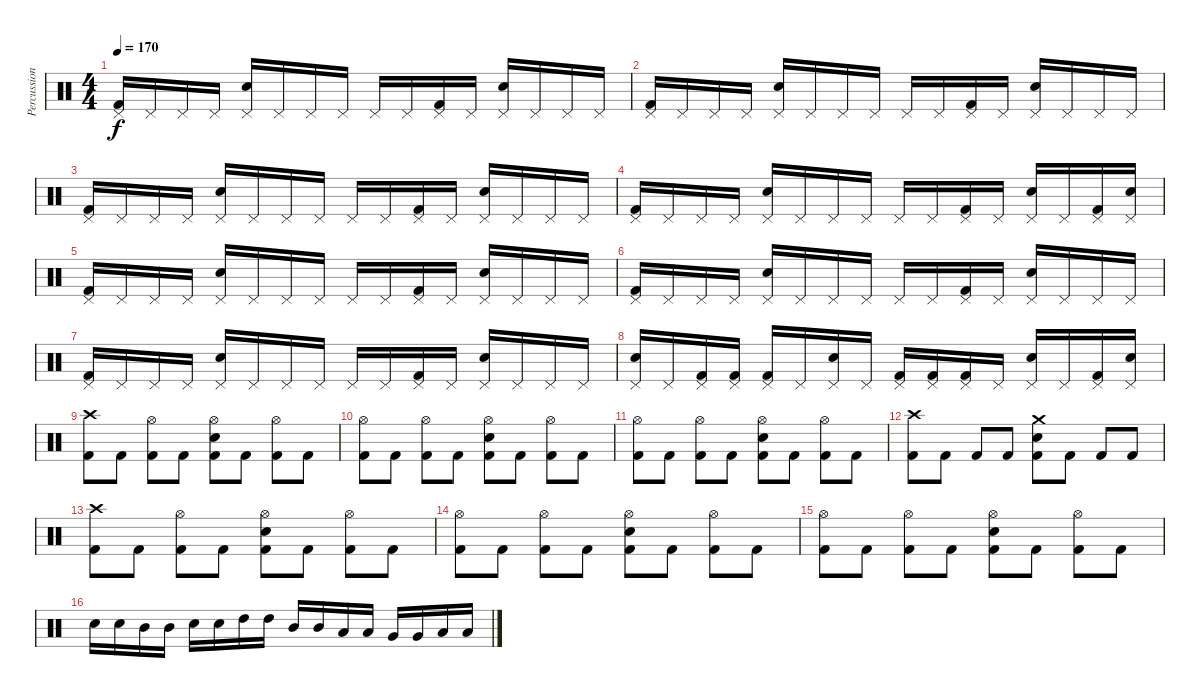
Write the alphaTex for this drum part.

\track ("Percussion" "Percussion") {instrument percussion}
\staff {score}
\articulation defaults
\ts (4 4)
\tempo 170
\clef neutral
\ks c
("Pedal Hi-Hat (hit)" "Kick (hit) 2").16{dy f} "Pedal Hi-Hat (hit)".16 "Pedal Hi-Hat (hit)".16 "Pedal Hi-Hat (hit)".16 ("Pedal Hi-Hat (hit)" "Snare (hit) 2").16 "Pedal Hi-Hat (hit)".16 "Pedal Hi-Hat (hit)".16 "Pedal Hi-Hat (hit)".16 "Pedal Hi-Hat (hit)".16 "Pedal Hi-Hat (hit)".16 ("Pedal Hi-Hat (hit)" "Kick (hit) 2").16 "Pedal Hi-Hat (hit)".16 ("Pedal Hi-Hat (hit)" "Snare (hit) 2").16 "Pedal Hi-Hat (hit)".16 "Pedal Hi-Hat (hit)".16 "Pedal Hi-Hat (hit)".16 |
("Pedal Hi-Hat (hit)" "Kick (hit) 2").16 "Pedal Hi-Hat (hit)".16 "Pedal Hi-Hat (hit)".16 "Pedal Hi-Hat (hit)".16 ("Pedal Hi-Hat (hit)" "Snare (hit) 2").16 "Pedal Hi-Hat (hit)".16 "Pedal Hi-Hat (hit)".16 "Pedal Hi-Hat (hit)".16 "Pedal Hi-Hat (hit)".16 "Pedal Hi-Hat (hit)".16 ("Pedal Hi-Hat (hit)" "Kick (hit) 2").16 "Pedal Hi-Hat (hit)".16 ("Pedal Hi-Hat (hit)" "Snare (hit) 2").16 "Pedal Hi-Hat (hit)".16 "Pedal Hi-Hat (hit)".16 "Pedal Hi-Hat (hit)".16 |
("Pedal Hi-Hat (hit)" "Kick (hit) 2").16 "Pedal Hi-Hat (hit)".16 "Pedal Hi-Hat (hit)".16 "Pedal Hi-Hat (hit)".16 ("Pedal Hi-Hat (hit)" "Snare (hit) 2").16 "Pedal Hi-Hat (hit)".16 "Pedal Hi-Hat (hit)".16 "Pedal Hi-Hat (hit)".16 "Pedal Hi-Hat (hit)".16 "Pedal Hi-Hat (hit)".16 ("Pedal Hi-Hat (hit)" "Kick (hit) 2").16 "Pedal Hi-Hat (hit)".16 ("Pedal Hi-Hat (hit)" "Snare (hit) 2").16 "Pedal Hi-Hat (hit)".16 "Pedal Hi-Hat (hit)".16 "Pedal Hi-Hat (hit)".16 |
("Pedal Hi-Hat (hit)" "Kick (hit) 2").16 "Pedal Hi-Hat (hit)".16 "Pedal Hi-Hat (hit)".16 "Pedal Hi-Hat (hit)".16 ("Pedal Hi-Hat (hit)" "Snare (hit) 2").16 "Pedal Hi-Hat (hit)".16 "Pedal Hi-Hat (hit)".16 "Pedal Hi-Hat (hit)".16 "Pedal Hi-Hat (hit)".16 "Pedal Hi-Hat (hit)".16 ("Pedal Hi-Hat (hit)" "Kick (hit) 2").16 "Pedal Hi-Hat (hit)".16 ("Pedal Hi-Hat (hit)" "Snare (hit) 2").16 "Pedal Hi-Hat (hit)".16 ("Pedal Hi-Hat (hit)" "Kick (hit) 2").16 ("Pedal Hi-Hat (hit)" "Snare (hit) 2").16 |
("Pedal Hi-Hat (hit)" "Kick (hit) 2").16 "Pedal Hi-Hat (hit)".16 "Pedal Hi-Hat (hit)".16 "Pedal Hi-Hat (hit)".16 ("Pedal Hi-Hat (hit)" "Snare (hit) 2").16 "Pedal Hi-Hat (hit)".16 "Pedal Hi-Hat (hit)".16 "Pedal Hi-Hat (hit)".16 "Pedal Hi-Hat (hit)".16 "Pedal Hi-Hat (hit)".16 ("Pedal Hi-Hat (hit)" "Kick (hit) 2").16 "Pedal Hi-Hat (hit)".16 ("Pedal Hi-Hat (hit)" "Snare (hit) 2").16 "Pedal Hi-Hat (hit)".16 "Pedal Hi-Hat (hit)".16 "Pedal Hi-Hat (hit)".16 |
("Pedal Hi-Hat (hit)" "Kick (hit) 2").16 "Pedal Hi-Hat (hit)".16 "Pedal Hi-Hat (hit)".16 "Pedal Hi-Hat (hit)".16 ("Pedal Hi-Hat (hit)" "Snare (hit) 2").16 "Pedal Hi-Hat (hit)".16 "Pedal Hi-Hat (hit)".16 "Pedal Hi-Hat (hit)".16 "Pedal Hi-Hat (hit)".16 "Pedal Hi-Hat (hit)".16 ("Pedal Hi-Hat (hit)" "Kick (hit) 2").16 "Pedal Hi-Hat (hit)".16 ("Pedal Hi-Hat (hit)" "Snare (hit) 2").16 "Pedal Hi-Hat (hit)".16 "Pedal Hi-Hat (hit)".16 "Pedal Hi-Hat (hit)".16 |
("Pedal Hi-Hat (hit)" "Kick (hit) 2").16 "Pedal Hi-Hat (hit)".16 "Pedal Hi-Hat (hit)".16 "Pedal Hi-Hat (hit)".16 ("Pedal Hi-Hat (hit)" "Snare (hit) 2").16 "Pedal Hi-Hat (hit)".16 "Pedal Hi-Hat (hit)".16 "Pedal Hi-Hat (hit)".16 "Pedal Hi-Hat (hit)".16 "Pedal Hi-Hat (hit)".16 ("Pedal Hi-Hat (hit)" "Kick (hit) 2").16 "Pedal Hi-Hat (hit)".16 ("Pedal Hi-Hat (hit)" "Snare (hit) 2").16 "Pedal Hi-Hat (hit)".16 "Pedal Hi-Hat (hit)".16 "Pedal Hi-Hat (hit)".16 |
("Pedal Hi-Hat (hit)" "Snare (hit) 2").16 "Pedal Hi-Hat (hit)".16 ("Pedal Hi-Hat (hit)" "Kick (hit) 2").16 ("Pedal Hi-Hat (hit)" "Kick (hit) 2").16 ("Pedal Hi-Hat (hit)" "Kick (hit) 2").16 "Pedal Hi-Hat (hit)".16 ("Pedal Hi-Hat (hit)" "Snare (hit) 2").16 "Pedal Hi-Hat (hit)".16 ("Pedal Hi-Hat (hit)" "Kick (hit) 2").16 ("Pedal Hi-Hat (hit)" "Kick (hit) 2").16 ("Pedal Hi-Hat (hit)" "Kick (hit) 2").16 "Pedal Hi-Hat (hit)".16 ("Pedal Hi-Hat (hit)" "Snare (hit) 2").16 "Pedal Hi-Hat (hit)".16 ("Pedal Hi-Hat (hit)" "Kick (hit) 2").16 ("Pedal Hi-Hat (hit)" "Snare (hit) 2").16 |
("Crash high (hit)" "Kick (hit) 2").8 "Kick (hit) 2".8 ("Hi-Hat (open)" "Kick (hit) 2").8 "Kick (hit) 2".8 ("Hi-Hat (open)" "Snare (hit) 2" "Kick (hit) 2").8 "Kick (hit) 2".8 ("Hi-Hat (open)" "Kick (hit) 2").8 "Kick (hit) 2".8 |
("Hi-Hat (open)" "Kick (hit) 2").8 "Kick (hit) 2".8 ("Hi-Hat (open)" "Kick (hit) 2").8 "Kick (hit) 2".8 ("Hi-Hat (open)" "Snare (hit) 2" "Kick (hit) 2").8 "Kick (hit) 2".8 ("Hi-Hat (open)" "Kick (hit) 2").8 "Kick (hit) 2".8 |
("Hi-Hat (open)" "Kick (hit) 2").8 "Kick (hit) 2".8 ("Hi-Hat (open)" "Kick (hit) 2").8 "Kick (hit) 2".8 ("Hi-Hat (open)" "Snare (hit) 2" "Kick (hit) 2").8 "Kick (hit) 2".8 ("Hi-Hat (open)" "Kick (hit) 2").8 "Kick (hit) 2".8 |
("Crash high (hit)" "Kick (hit) 2").8 "Kick (hit) 2".8 "Kick (hit) 2".8 "Kick (hit) 2".8 ("Crash medium (hit)" "Snare (hit) 2" "Kick (hit) 2").8 "Kick (hit) 2".8 "Kick (hit) 2".8 "Kick (hit) 2".8 |
("Crash high (hit)" "Kick (hit) 2").8 "Kick (hit) 2".8 ("Hi-Hat (open)" "Kick (hit) 2").8 "Kick (hit) 2".8 ("Hi-Hat (open)" "Snare (hit) 2" "Kick (hit) 2").8 "Kick (hit) 2".8 ("Hi-Hat (open)" "Kick (hit) 2").8 "Kick (hit) 2".8 |
("Hi-Hat (open)" "Kick (hit) 2").8 "Kick (hit) 2".8 ("Hi-Hat (open)" "Kick (hit) 2").8 "Kick (hit) 2".8 ("Hi-Hat (open)" "Snare (hit) 2" "Kick (hit) 2").8 "Kick (hit) 2".8 ("Hi-Hat (open)" "Kick (hit) 2").8 "Kick (hit) 2".8 |
("Hi-Hat (open)" "Kick (hit) 2").8 "Kick (hit) 2".8 ("Hi-Hat (open)" "Kick (hit) 2").8 "Kick (hit) 2".8 ("Hi-Hat (open)" "Snare (hit) 2" "Kick (hit) 2").8 "Kick (hit) 2".8 ("Hi-Hat (open)" "Kick (hit) 2").8 "Kick (hit) 2".8 |
"Snare (hit) 2".16 "Snare (hit) 2".16 "Mid Tom (hit)".16 "Mid Tom (hit)".16 "Snare (hit) 2".16 "Snare (hit) 2".16 "High Tom (hit)".16 "High Tom (hit)".16 "Mid Tom (hit)".16 "Mid Tom (hit)".16 "Low Tom (hit)".16 "Low Tom (hit)".16 "Very Low Tom (hit)".16 "Very Low Tom (hit)".16 "Low Floor Tom (hit)".16 "Low Floor Tom (hit)".16
